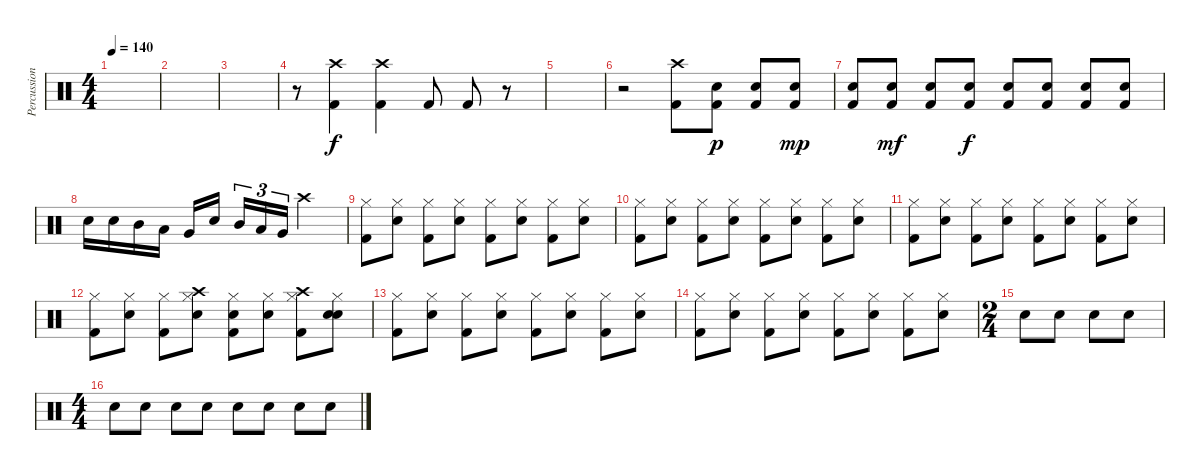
\track ("Percussion" "Percussion") {instrument percussion}
\staff {score}
\articulation defaults
\ts (4 4)
\tempo 140
\clef neutral
\ks c
|
|
|
r.8 ("Crash high (hit)" "Kick (hit) 2").4 ("Crash high (hit)" "Kick (hit) 2").4 "Kick (hit) 2".8 "Kick (hit) 2".8 r.8 |
|
r.2 ("Crash high (hit)" "Kick (hit) 2").8 ("Snare (hit) 2" "Kick (hit) 2").8{dy p} ("Snare (hit) 2" "Kick (hit) 2").8 ("Snare (hit) 2" "Kick (hit) 2").8{dy mp} |
("Snare (hit) 2" "Kick (hit) 2").8 ("Snare (hit) 2" "Kick (hit) 2").8{dy mf} ("Snare (hit) 2" "Kick (hit) 2").8 ("Snare (hit) 2" "Kick (hit) 2").8{dy f} ("Snare (hit) 2" "Kick (hit) 2").8 ("Snare (hit) 2" "Kick (hit) 2").8 ("Snare (hit) 2" "Kick (hit) 2").8 ("Snare (hit) 2" "Kick (hit) 2").8 |
"Snare (hit) 2".16 "Snare (hit) 2".16 "Mid Tom (hit)".16 "Low Tom (hit)".16 "Very Low Tom (hit)".16 "Snare (hit) 2".16 "Mid Tom (hit)".16{tu (3 2)} "Low Tom (hit)".16{tu (3 2)} "Very Low Tom (hit)".16{tu (3 2)} "Crash high (hit)".2 |
("Hi-Hat (closed)" "Kick (hit) 2").8 ("Hi-Hat (closed)" "Snare (hit) 2").8 ("Hi-Hat (closed)" "Kick (hit) 2").8 ("Hi-Hat (closed)" "Snare (hit) 2").8 ("Hi-Hat (closed)" "Kick (hit) 2").8 ("Hi-Hat (closed)" "Snare (hit) 2").8 ("Hi-Hat (closed)" "Kick (hit) 2").8 ("Hi-Hat (closed)" "Snare (hit) 2").8 |
("Hi-Hat (closed)" "Kick (hit) 2").8 ("Hi-Hat (closed)" "Snare (hit) 2").8 ("Hi-Hat (closed)" "Kick (hit) 2").8 ("Hi-Hat (closed)" "Snare (hit) 2").8 ("Hi-Hat (closed)" "Kick (hit) 2").8 ("Hi-Hat (closed)" "Snare (hit) 2").8 ("Hi-Hat (closed)" "Kick (hit) 2").8 ("Hi-Hat (closed)" "Snare (hit) 2").8 |
("Hi-Hat (closed)" "Kick (hit) 2").8 ("Hi-Hat (closed)" "Snare (hit) 2").8 ("Hi-Hat (closed)" "Kick (hit) 2").8 ("Hi-Hat (closed)" "Snare (hit) 2").8 ("Hi-Hat (closed)" "Kick (hit) 2").8 ("Hi-Hat (closed)" "Snare (hit) 2").8 ("Hi-Hat (closed)" "Kick (hit) 2").8 ("Hi-Hat (closed)" "Snare (hit) 2").8 |
("Hi-Hat (closed)" "Kick (hit) 2").8 ("Hi-Hat (closed)" "Snare (hit) 2").8 ("Hi-Hat (closed)" "Kick (hit) 2").8 ("Crash high (hit)" "Hi-Hat (closed)" "Snare (hit) 2").8 ("Snare (hit)" "Hi-Hat (closed)" "Kick (hit) 2").8 ("Hi-Hat (closed)" "Snare (hit) 2").8 ("Crash high (hit)" "Hi-Hat (closed)" "Kick (hit) 2").8 ("Snare (hit)" "Hi-Hat (closed)" "Snare (hit) 2").8 |
("Hi-Hat (closed)" "Kick (hit) 2").8 ("Hi-Hat (closed)" "Snare (hit) 2").8 ("Hi-Hat (closed)" "Kick (hit) 2").8 ("Hi-Hat (closed)" "Snare (hit) 2").8 ("Hi-Hat (closed)" "Kick (hit) 2").8 ("Hi-Hat (closed)" "Snare (hit) 2").8 ("Hi-Hat (closed)" "Kick (hit) 2").8 ("Hi-Hat (closed)" "Snare (hit) 2").8 |
("Hi-Hat (closed)" "Kick (hit) 2").8 ("Hi-Hat (closed)" "Snare (hit) 2").8 ("Hi-Hat (closed)" "Kick (hit) 2").8 ("Hi-Hat (closed)" "Snare (hit) 2").8 ("Hi-Hat (closed)" "Kick (hit) 2").8 ("Hi-Hat (closed)" "Snare (hit) 2").8 ("Hi-Hat (closed)" "Kick (hit) 2").8 ("Hi-Hat (closed)" "Snare (hit) 2").8 |
\ts (2 4)
"Snare (hit) 2".8 "Snare (hit) 2".8 "Snare (hit) 2".8 "Snare (hit) 2".8 |
\ts (4 4)
"Snare (hit) 2".8 "Snare (hit) 2".8 "Snare (hit) 2".8 "Snare (hit) 2".8 "Snare (hit) 2".8 "Snare (hit) 2".8 "Snare (hit) 2".8 "Snare (hit) 2".8
